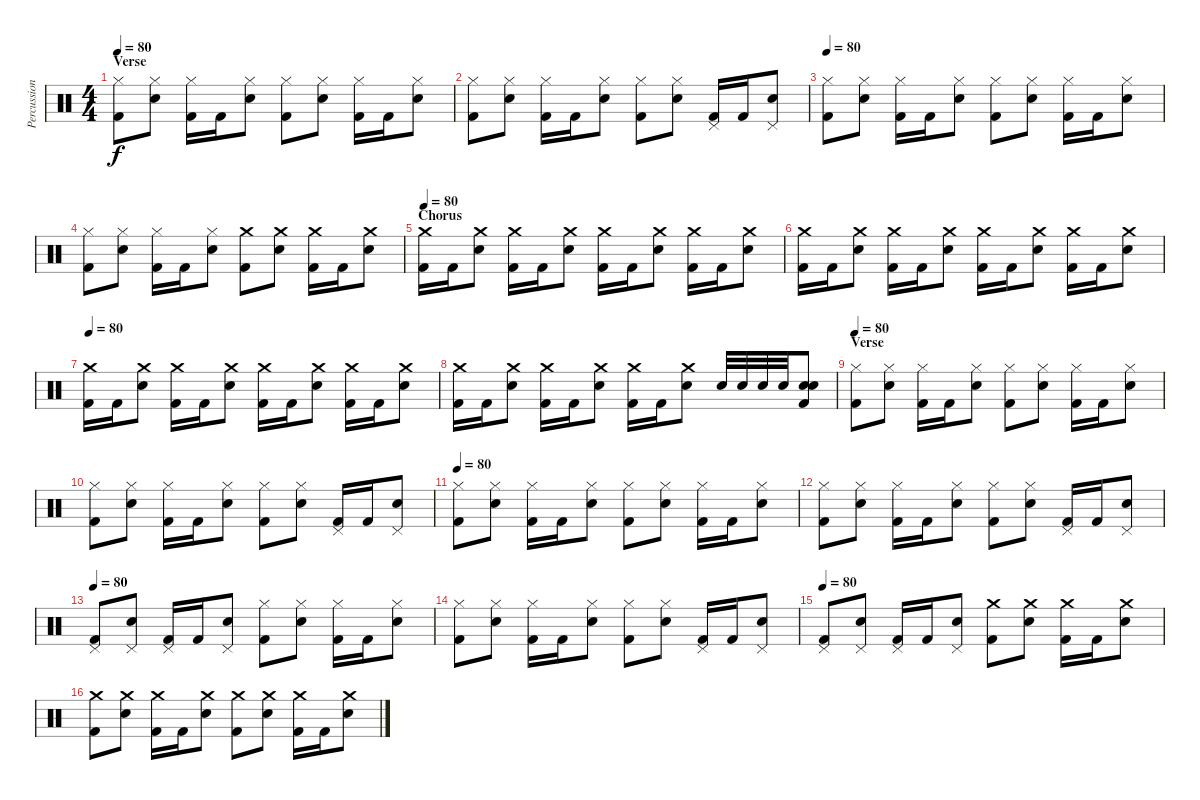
\track ("Percussion" "Percussion") {instrument percussion}
\staff {score}
\articulation defaults
\ts (4 4)
\section ("" "Verse")
\tempo 70
\tempo 80
\clef neutral
\ks c
("Kick (hit) 2" "Hi-Hat (closed)").8{dy f} ("Electric Snare (hit)" "Hi-Hat (closed)").8 ("Kick (hit) 2" "Hi-Hat (closed)").16 "Kick (hit) 2".16 ("Electric Snare (hit)" "Hi-Hat (closed)").8 ("Kick (hit) 2" "Hi-Hat (closed)").8 ("Electric Snare (hit)" "Hi-Hat (closed)").8 ("Kick (hit) 2" "Hi-Hat (closed)").16 "Kick (hit) 2".16 ("Electric Snare (hit)" "Hi-Hat (closed)").8 |
("Kick (hit) 2" "Hi-Hat (closed)").8 ("Electric Snare (hit)" "Hi-Hat (closed)").8 ("Kick (hit) 2" "Hi-Hat (closed)").16 "Kick (hit) 2".16 ("Electric Snare (hit)" "Hi-Hat (closed)").8 ("Kick (hit) 2" "Hi-Hat (closed)").8 ("Electric Snare (hit)" "Hi-Hat (closed)").8 ("Kick (hit) 2" "Pedal Hi-Hat (hit)").16 "Kick (hit) 2".16 ("Electric Snare (hit)" "Pedal Hi-Hat (hit)").8 |
\tempo 80
("Kick (hit) 2" "Hi-Hat (closed)").8 ("Electric Snare (hit)" "Hi-Hat (closed)").8 ("Kick (hit) 2" "Hi-Hat (closed)").16 "Kick (hit) 2".16 ("Electric Snare (hit)" "Hi-Hat (closed)").8 ("Kick (hit) 2" "Hi-Hat (closed)").8 ("Electric Snare (hit)" "Hi-Hat (closed)").8 ("Kick (hit) 2" "Hi-Hat (closed)").16 "Kick (hit) 2".16 ("Electric Snare (hit)" "Hi-Hat (closed)").8 |
("Kick (hit) 2" "Hi-Hat (closed)").8 ("Electric Snare (hit)" "Hi-Hat (closed)").8 ("Kick (hit) 2" "Hi-Hat (closed)").16 "Kick (hit) 2".16 ("Electric Snare (hit)" "Hi-Hat (closed)").8 ("Kick (hit) 2" "Crash medium (hit)").8 ("Electric Snare (hit)" "Crash medium (hit)").8 ("Kick (hit) 2" "Crash medium (hit)").16 "Kick (hit) 2".16 ("Electric Snare (hit)" "Crash medium (hit)").8 |
\section ("" "Chorus")
\tempo 80
("Kick (hit) 2" "Crash medium (hit)").16 "Kick (hit) 2".16 ("Electric Snare (hit)" "Crash medium (hit)").8 ("Kick (hit) 2" "Crash medium (hit)").16 "Kick (hit) 2".16 ("Electric Snare (hit)" "Crash medium (hit)").8 ("Kick (hit) 2" "Crash medium (hit)").16 "Kick (hit) 2".16 ("Electric Snare (hit)" "Crash medium (hit)").8 ("Kick (hit) 2" "Crash medium (hit)").16 "Kick (hit) 2".16 ("Electric Snare (hit)" "Crash medium (hit)").8 |
("Kick (hit) 2" "Crash medium (hit)").16 "Kick (hit) 2".16 ("Electric Snare (hit)" "Crash medium (hit)").8 ("Kick (hit) 2" "Crash medium (hit)").16 "Kick (hit) 2".16 ("Electric Snare (hit)" "Crash medium (hit)").8 ("Kick (hit) 2" "Crash medium (hit)").16 "Kick (hit) 2".16 ("Electric Snare (hit)" "Crash medium (hit)").8 ("Kick (hit) 2" "Crash medium (hit)").16 "Kick (hit) 2".16 ("Electric Snare (hit)" "Crash medium (hit)").8 |
\tempo 80
("Kick (hit) 2" "Crash medium (hit)").16 "Kick (hit) 2".16 ("Electric Snare (hit)" "Crash medium (hit)").8 ("Kick (hit) 2" "Crash medium (hit)").16 "Kick (hit) 2".16 ("Electric Snare (hit)" "Crash medium (hit)").8 ("Kick (hit) 2" "Crash medium (hit)").16 "Kick (hit) 2".16 ("Electric Snare (hit)" "Crash medium (hit)").8 ("Kick (hit) 2" "Crash medium (hit)").16 "Kick (hit) 2".16 ("Electric Snare (hit)" "Crash medium (hit)").8 |
("Kick (hit) 2" "Crash medium (hit)").16 "Kick (hit) 2".16 ("Electric Snare (hit)" "Crash medium (hit)").8 ("Kick (hit) 2" "Crash medium (hit)").16 "Kick (hit) 2".16 ("Electric Snare (hit)" "Crash medium (hit)").8 ("Kick (hit) 2" "Crash medium (hit)").16 "Kick (hit) 2".16 ("Electric Snare (hit)" "Crash medium (hit)").8 "Electric Snare (hit)".32 "Electric Snare (hit)".32 "Electric Snare (hit)".32 "Electric Snare (hit)".32 ("Electric Snare (hit)" "Electric Snare (hit)" "Kick (hit) 2").8 |
\section ("" "Verse")
\tempo 70
\tempo 80
("Kick (hit) 2" "Hi-Hat (closed)").8 ("Electric Snare (hit)" "Hi-Hat (closed)").8 ("Kick (hit) 2" "Hi-Hat (closed)").16 "Kick (hit) 2".16 ("Electric Snare (hit)" "Hi-Hat (closed)").8 ("Kick (hit) 2" "Hi-Hat (closed)").8 ("Electric Snare (hit)" "Hi-Hat (closed)").8 ("Kick (hit) 2" "Hi-Hat (closed)").16 "Kick (hit) 2".16 ("Electric Snare (hit)" "Hi-Hat (closed)").8 |
("Kick (hit) 2" "Hi-Hat (closed)").8 ("Electric Snare (hit)" "Hi-Hat (closed)").8 ("Kick (hit) 2" "Hi-Hat (closed)").16 "Kick (hit) 2".16 ("Electric Snare (hit)" "Hi-Hat (closed)").8 ("Kick (hit) 2" "Hi-Hat (closed)").8 ("Electric Snare (hit)" "Hi-Hat (closed)").8 ("Kick (hit) 2" "Pedal Hi-Hat (hit)").16 "Kick (hit) 2".16 ("Electric Snare (hit)" "Pedal Hi-Hat (hit)").8 |
\tempo 70
\tempo 80
("Kick (hit) 2" "Hi-Hat (closed)").8 ("Electric Snare (hit)" "Hi-Hat (closed)").8 ("Kick (hit) 2" "Hi-Hat (closed)").16 "Kick (hit) 2".16 ("Electric Snare (hit)" "Hi-Hat (closed)").8 ("Kick (hit) 2" "Hi-Hat (closed)").8 ("Electric Snare (hit)" "Hi-Hat (closed)").8 ("Kick (hit) 2" "Hi-Hat (closed)").16 "Kick (hit) 2".16 ("Electric Snare (hit)" "Hi-Hat (closed)").8 |
("Kick (hit) 2" "Hi-Hat (closed)").8 ("Electric Snare (hit)" "Hi-Hat (closed)").8 ("Kick (hit) 2" "Hi-Hat (closed)").16 "Kick (hit) 2".16 ("Electric Snare (hit)" "Hi-Hat (closed)").8 ("Kick (hit) 2" "Hi-Hat (closed)").8 ("Electric Snare (hit)" "Hi-Hat (closed)").8 ("Kick (hit) 2" "Pedal Hi-Hat (hit)").16 "Kick (hit) 2".16 ("Electric Snare (hit)" "Pedal Hi-Hat (hit)").8 |
\tempo 80
("Kick (hit) 2" "Pedal Hi-Hat (hit)").8 ("Electric Snare (hit)" "Pedal Hi-Hat (hit)").8 ("Kick (hit) 2" "Pedal Hi-Hat (hit)").16 "Kick (hit) 2".16 ("Electric Snare (hit)" "Pedal Hi-Hat (hit)").8 ("Kick (hit) 2" "Hi-Hat (closed)").8 ("Electric Snare (hit)" "Hi-Hat (closed)").8 ("Kick (hit) 2" "Hi-Hat (closed)").16 "Kick (hit) 2".16 ("Electric Snare (hit)" "Hi-Hat (closed)").8 |
("Kick (hit) 2" "Hi-Hat (closed)").8 ("Electric Snare (hit)" "Hi-Hat (closed)").8 ("Kick (hit) 2" "Hi-Hat (closed)").16 "Kick (hit) 2".16 ("Electric Snare (hit)" "Hi-Hat (closed)").8 ("Kick (hit) 2" "Hi-Hat (closed)").8 ("Electric Snare (hit)" "Hi-Hat (closed)").8 ("Kick (hit) 2" "Pedal Hi-Hat (hit)").16 "Kick (hit) 2".16 ("Electric Snare (hit)" "Pedal Hi-Hat (hit)").8 |
\tempo 75
\tempo 80
("Kick (hit) 2" "Pedal Hi-Hat (hit)").8 ("Electric Snare (hit)" "Pedal Hi-Hat (hit)").8 ("Kick (hit) 2" "Pedal Hi-Hat (hit)").16 "Kick (hit) 2".16 ("Electric Snare (hit)" "Pedal Hi-Hat (hit)").8 ("Kick (hit) 2" "Crash medium (hit)").8 ("Electric Snare (hit)" "Crash medium (hit)").8 ("Kick (hit) 2" "Crash medium (hit)").16 "Kick (hit) 2".16 ("Electric Snare (hit)" "Crash medium (hit)").8 |
("Kick (hit) 2" "Crash medium (hit)").8 ("Electric Snare (hit)" "Crash medium (hit)").8 ("Kick (hit) 2" "Crash medium (hit)").16 "Kick (hit) 2".16 ("Electric Snare (hit)" "Crash medium (hit)").8 ("Kick (hit) 2" "Crash medium (hit)").8 ("Electric Snare (hit)" "Crash medium (hit)").8 ("Kick (hit) 2" "Crash medium (hit)").16 "Kick (hit) 2".16 ("Electric Snare (hit)" "Crash medium (hit)").8
